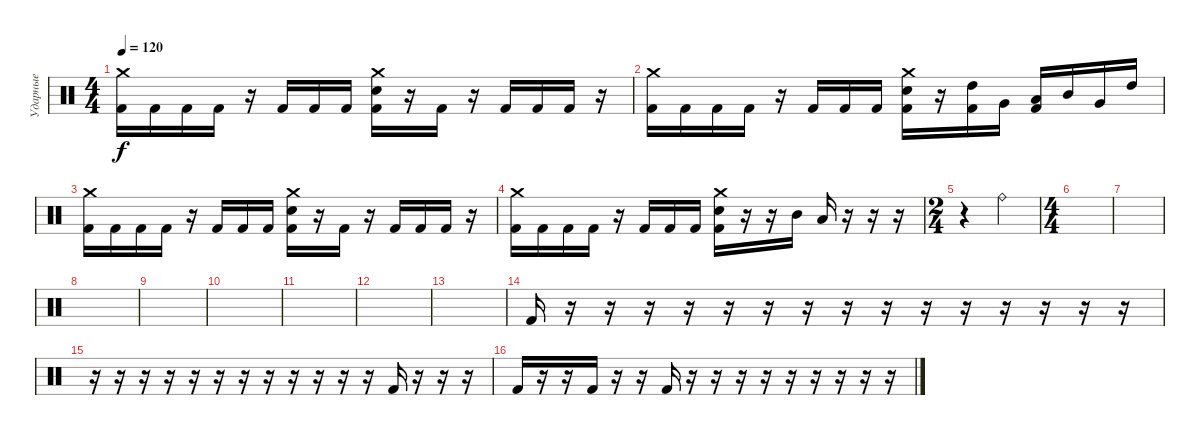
\track ("Ударные" "Ударные") {instrument percussion}
\staff {score}
\articulation defaults
\ts (4 4)
\tempo 120
\clef neutral
\ks c
("Crash medium (hit)" "Kick (hit) 2").16{dy f} "Kick (hit) 2".16 "Kick (hit) 2".16 "Kick (hit) 2".16 r.16 "Kick (hit) 2".16 "Kick (hit) 2".16 "Kick (hit) 2".16 ("Crash medium (hit)" "Electric Snare (hit)" "Kick (hit) 2").16 r.16 "Kick (hit) 2".16 r.16 "Kick (hit) 2".16 "Kick (hit) 2".16 "Kick (hit) 2".16 r.16 |
("Crash medium (hit)" "Kick (hit) 2").16 "Kick (hit) 2".16 "Kick (hit) 2".16 "Kick (hit) 2".16 r.16 "Kick (hit) 2".16 "Kick (hit) 2".16 "Kick (hit) 2".16 ("Crash medium (hit)" "Electric Snare (hit)" "Kick (hit) 2").16 r.16 ("High Tom (hit)" "Kick (hit) 2").16 "Very Low Tom (hit)".16 ("Low Tom (hit)" "Kick (hit) 2").16 "Mid Tom (hit)".16 "Very Low Tom (hit)".16 "High Tom (hit)".16 |
("Crash medium (hit)" "Kick (hit) 2").16 "Kick (hit) 2".16 "Kick (hit) 2".16 "Kick (hit) 2".16 r.16 "Kick (hit) 2".16 "Kick (hit) 2".16 "Kick (hit) 2".16 ("Crash medium (hit)" "Electric Snare (hit)" "Kick (hit) 2").16 r.16 "Kick (hit) 2".16 r.16 "Kick (hit) 2".16 "Kick (hit) 2".16 "Kick (hit) 2".16 r.16 |
("Crash medium (hit)" "Kick (hit) 2").16 "Kick (hit) 2".16 "Kick (hit) 2".16 "Kick (hit) 2".16 r.16 "Kick (hit) 2".16 "Kick (hit) 2".16 "Kick (hit) 2".16 ("Crash medium (hit)" "Electric Snare (hit)" "Kick (hit) 2").16 r.16 r.16 "Mid Tom (hit)".16 "Low Tom (hit)".16 r.16 r.16 r.16 |
\ts (2 4)
r.4 "Ride (bell)".4 |
\ts (4 4)
|
|
|
|
|
|
|
|
"Kick (hit) 2".16 r.16 r.16 r.16 r.16 r.16 r.16 r.16 r.16 r.16 r.16 r.16 r.16 r.16 r.16 r.16 |
r.16 r.16 r.16 r.16 r.16 r.16 r.16 r.16 r.16 r.16 r.16 r.16 "Kick (hit) 2".16 r.16 r.16 r.16 |
"Kick (hit) 2".16 r.16 r.16 "Kick (hit) 2".16 r.16 r.16 "Kick (hit) 2".16 r.16 r.16 r.16 r.16 r.16 r.16 r.16 r.16 r.16
